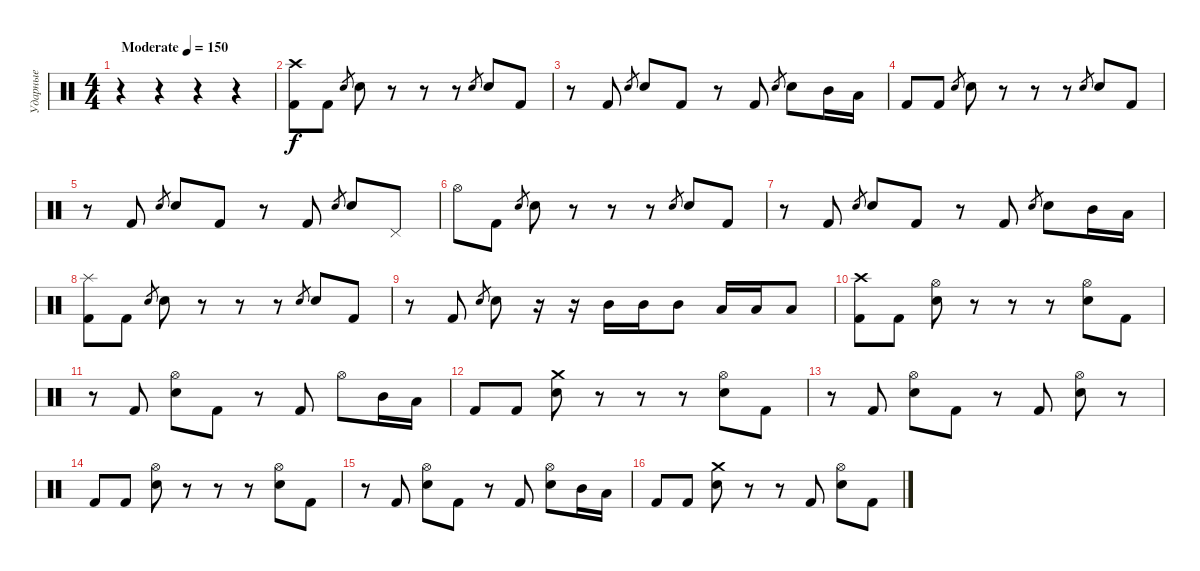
\track ("Ударные" "Ударные") {instrument percussion}
\staff {score}
\articulation defaults
\ts (4 4)
\tempo (150 "Moderate")
\clef neutral
\ks c
r.4{dy f} r.4 r.4 r.4 |
("Crash high (hit)" "Kick (hit) 2").8 "Kick (hit) 2".8 "Electric Snare (hit)".8{gr} "Electric Snare (hit)".8 r.8 r.8 r.8 "Electric Snare (hit)".8{gr} "Electric Snare (hit)".8 "Kick (hit) 2".8 |
r.8 "Kick (hit) 2".8 "Electric Snare (hit)".8{gr} "Electric Snare (hit)".8 "Kick (hit) 2".8 r.8 "Kick (hit) 2".8 "Electric Snare (hit)".8{gr} "Electric Snare (hit)".8 "Mid Tom (hit)".16 "Low Tom (hit)".16 |
"Kick (hit) 2".8 "Kick (hit) 2".8 "Electric Snare (hit)".8{gr} "Electric Snare (hit)".8 r.8 r.8 r.8 "Electric Snare (hit)".8{gr} "Electric Snare (hit)".8 "Kick (hit) 2".8 |
r.8 "Kick (hit) 2".8 "Electric Snare (hit)".8{gr} "Electric Snare (hit)".8 "Kick (hit) 2".8 r.8 "Kick (hit) 2".8 "Electric Snare (hit)".8{gr} "Electric Snare (hit)".8 "Pedal Hi-Hat (hit)".8 |
"Hi-Hat (open)".8 "Kick (hit) 2".8 "Electric Snare (hit)".8{gr} "Electric Snare (hit)".8 r.8 r.8 r.8 "Electric Snare (hit)".8{gr} "Electric Snare (hit)".8 "Kick (hit) 2".8 |
r.8 "Kick (hit) 2".8 "Electric Snare (hit)".8{gr} "Electric Snare (hit)".8 "Kick (hit) 2".8 r.8 "Kick (hit) 2".8 "Electric Snare (hit)".8{gr} "Electric Snare (hit)".8 "Mid Tom (hit)".16 "Low Tom (hit)".16 |
("Splash (hit)" "Kick (hit) 2").8 "Kick (hit) 2".8 "Electric Snare (hit)".8{gr} "Electric Snare (hit)".8 r.8 r.8 r.8 "Electric Snare (hit)".8{gr} "Electric Snare (hit)".8 "Kick (hit) 2".8 |
r.8 "Kick (hit) 2".8 "Electric Snare (hit)".8{gr} "Electric Snare (hit)".8 r.16 r.16 "Mid Tom (hit)".16 "Mid Tom (hit)".16 "Mid Tom (hit)".8 "Low Tom (hit)".16 "Low Tom (hit)".16 "Low Tom (hit)".8 |
("Crash high (hit)" "Kick (hit) 2").8 "Kick (hit) 2".8 ("Hi-Hat (open)" "Electric Snare (hit)").8 r.8 r.8 r.8 ("Hi-Hat (open)" "Electric Snare (hit)").8 "Kick (hit) 2".8 |
r.8 "Kick (hit) 2".8 ("Hi-Hat (open)" "Electric Snare (hit)").8 "Kick (hit) 2".8 r.8 "Kick (hit) 2".8 "Hi-Hat (open)".8 "Mid Tom (hit)".16 "Low Tom (hit)".16 |
"Kick (hit) 2".8 "Kick (hit) 2".8 ("Crash medium (hit)" "Electric Snare (hit)").8 r.8 r.8 r.8 ("Hi-Hat (open)" "Electric Snare (hit)").8 "Kick (hit) 2".8 |
r.8 "Kick (hit) 2".8 ("Hi-Hat (open)" "Electric Snare (hit)").8 "Kick (hit) 2".8 r.8 "Kick (hit) 2".8 ("Hi-Hat (open)" "Electric Snare (hit)").8 r.8 |
"Kick (hit) 2".8 "Kick (hit) 2".8 ("Hi-Hat (open)" "Electric Snare (hit)").8 r.8 r.8 r.8 ("Hi-Hat (open)" "Electric Snare (hit)").8 "Kick (hit) 2".8 |
r.8 "Kick (hit) 2".8 ("Hi-Hat (open)" "Electric Snare (hit)").8 "Kick (hit) 2".8 r.8 "Kick (hit) 2".8 ("Hi-Hat (open)" "Electric Snare (hit)").8 "Mid Tom (hit)".16 "Low Tom (hit)".16 |
"Kick (hit) 2".8 "Kick (hit) 2".8 ("Crash medium (hit)" "Electric Snare (hit)").8 r.8 r.8 "Kick (hit) 2".8 ("Hi-Hat (open)" "Electric Snare (hit)").8 "Kick (hit) 2".8
